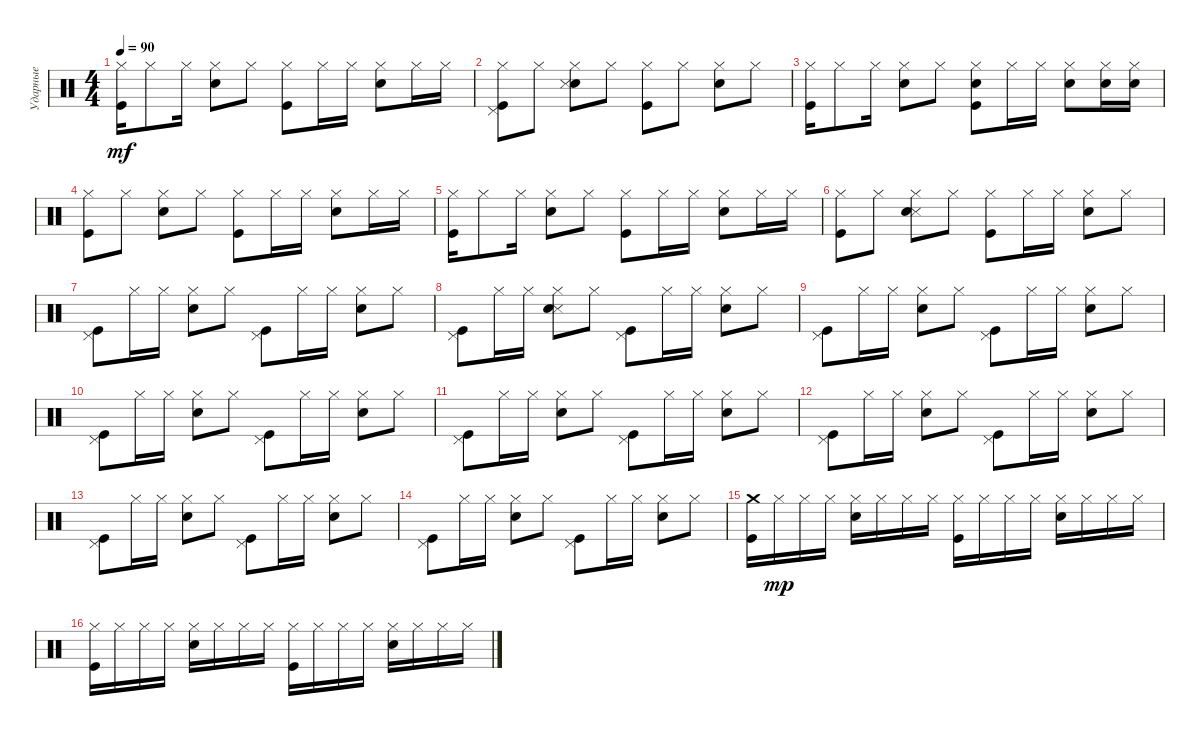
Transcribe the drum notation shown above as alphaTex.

\track ("Ударные" "Ударные") {instrument percussion}
\staff {score}
\articulation defaults
\ts (4 4)
\tempo 90
\clef neutral
\ks c
("Hi-Hat (closed)" "Kick (hit)").16{dy mf} "Hi-Hat (closed)".8 "Hi-Hat (closed)".16 ("Hi-Hat (closed)" "Snare (hit) 2").8 "Hi-Hat (closed)".8 ("Hi-Hat (closed)" "Kick (hit)").8 "Hi-Hat (closed)".16 "Hi-Hat (closed)".16 ("Hi-Hat (closed)" "Snare (hit) 2").8 "Hi-Hat (closed)".16 "Hi-Hat (closed)".16 |
("Hi-Hat (closed)" "Pedal Hi-Hat (hit)" "Kick (hit)").8 "Hi-Hat (closed)".8 ("Hi-Hat (closed)" "Snare (hit) 2" "Snare (side stick) 3").8 "Hi-Hat (closed)".8 ("Hi-Hat (closed)" "Kick (hit)").8 "Hi-Hat (closed)".8 ("Hi-Hat (closed)" "Snare (hit) 2").8 "Hi-Hat (closed)".8 |
("Hi-Hat (closed)" "Kick (hit)").16 "Hi-Hat (closed)".8 "Hi-Hat (closed)".16 ("Hi-Hat (closed)" "Snare (hit) 2").8 "Hi-Hat (closed)".8 ("Hi-Hat (closed)" "Kick (hit)" "Snare (hit) 2").8 "Hi-Hat (closed)".16 "Hi-Hat (closed)".16 ("Hi-Hat (closed)" "Snare (hit) 2").8 ("Hi-Hat (closed)" "Snare (hit) 2").16 ("Hi-Hat (closed)" "Snare (hit) 2").16 |
("Hi-Hat (closed)" "Kick (hit)").8 "Hi-Hat (closed)".8 ("Hi-Hat (closed)" "Snare (hit) 2").8 "Hi-Hat (closed)".8 ("Hi-Hat (closed)" "Kick (hit)").8 "Hi-Hat (closed)".16 "Hi-Hat (closed)".16 ("Hi-Hat (closed)" "Snare (hit) 2").8 "Hi-Hat (closed)".16 "Hi-Hat (closed)".16 |
("Hi-Hat (closed)" "Kick (hit)").16 "Hi-Hat (closed)".8 "Hi-Hat (closed)".16 ("Hi-Hat (closed)" "Snare (hit) 2").8 "Hi-Hat (closed)".8 ("Hi-Hat (closed)" "Kick (hit)").8 "Hi-Hat (closed)".16 "Hi-Hat (closed)".16 ("Hi-Hat (closed)" "Snare (hit) 2").8 "Hi-Hat (closed)".16 "Hi-Hat (closed)".16 |
("Hi-Hat (closed)" "Kick (hit)").8 "Hi-Hat (closed)".8 ("Hi-Hat (closed)" "Snare (side stick) 3" "Snare (hit) 2").8 "Hi-Hat (closed)".8 ("Hi-Hat (closed)" "Kick (hit)").8 "Hi-Hat (closed)".16 "Hi-Hat (closed)".16 ("Hi-Hat (closed)" "Snare (hit) 2").8 "Hi-Hat (closed)".8 |
("Pedal Hi-Hat (hit)" "Kick (hit)").8 "Hi-Hat (closed)".16 "Hi-Hat (closed)".16 ("Hi-Hat (closed)" "Snare (hit) 2").8 "Hi-Hat (closed)".8 ("Pedal Hi-Hat (hit)" "Kick (hit)").8 "Hi-Hat (closed)".16 "Hi-Hat (closed)".16 ("Hi-Hat (closed)" "Snare (hit) 2").8 "Hi-Hat (closed)".8 |
("Pedal Hi-Hat (hit)" "Kick (hit)").8 "Hi-Hat (closed)".16 "Hi-Hat (closed)".16 ("Hi-Hat (closed)" "Snare (side stick) 3" "Snare (hit) 2").8 "Hi-Hat (closed)".8 ("Pedal Hi-Hat (hit)" "Kick (hit)").8 "Hi-Hat (closed)".16 "Hi-Hat (closed)".16 ("Hi-Hat (closed)" "Snare (hit) 2").8 "Hi-Hat (closed)".8 |
("Pedal Hi-Hat (hit)" "Kick (hit)").8 "Hi-Hat (closed)".16 "Hi-Hat (closed)".16 ("Hi-Hat (closed)" "Snare (hit) 2").8 "Hi-Hat (closed)".8 ("Pedal Hi-Hat (hit)" "Kick (hit)").8 "Hi-Hat (closed)".16 "Hi-Hat (closed)".16 ("Hi-Hat (closed)" "Snare (hit) 2").8 "Hi-Hat (closed)".8 |
("Pedal Hi-Hat (hit)" "Kick (hit)").8 "Hi-Hat (closed)".16 "Hi-Hat (closed)".16 ("Hi-Hat (closed)" "Snare (hit) 2").8 "Hi-Hat (closed)".8 ("Pedal Hi-Hat (hit)" "Kick (hit)").8 "Hi-Hat (closed)".16 "Hi-Hat (closed)".16 ("Hi-Hat (closed)" "Snare (hit) 2").8 "Hi-Hat (closed)".8 |
("Pedal Hi-Hat (hit)" "Kick (hit)").8 "Hi-Hat (closed)".16 "Hi-Hat (closed)".16 ("Hi-Hat (closed)" "Snare (hit) 2").8 "Hi-Hat (closed)".8 ("Pedal Hi-Hat (hit)" "Kick (hit)").8 "Hi-Hat (closed)".16 "Hi-Hat (closed)".16 ("Hi-Hat (closed)" "Snare (hit) 2").8 "Hi-Hat (closed)".8 |
("Pedal Hi-Hat (hit)" "Kick (hit)").8 "Hi-Hat (closed)".16 "Hi-Hat (closed)".16 ("Hi-Hat (closed)" "Snare (hit) 2").8 "Hi-Hat (closed)".8 ("Pedal Hi-Hat (hit)" "Kick (hit)").8 "Hi-Hat (closed)".16 "Hi-Hat (closed)".16 ("Hi-Hat (closed)" "Snare (hit) 2").8 "Hi-Hat (closed)".8 |
("Pedal Hi-Hat (hit)" "Kick (hit)").8 "Hi-Hat (closed)".16 "Hi-Hat (closed)".16 ("Hi-Hat (closed)" "Snare (hit) 2").8 "Hi-Hat (closed)".8 ("Pedal Hi-Hat (hit)" "Kick (hit)").8 "Hi-Hat (closed)".16 "Hi-Hat (closed)".16 ("Hi-Hat (closed)" "Snare (hit) 2").8 "Hi-Hat (closed)".8 |
("Pedal Hi-Hat (hit)" "Kick (hit)").8 "Hi-Hat (closed)".16 "Hi-Hat (closed)".16 ("Hi-Hat (closed)" "Snare (hit) 2").8 "Hi-Hat (closed)".8 ("Pedal Hi-Hat (hit)" "Kick (hit)").8 "Hi-Hat (closed)".16 "Hi-Hat (closed)".16 ("Hi-Hat (closed)" "Snare (hit) 2").8 "Hi-Hat (closed)".8 |
("Crash medium (hit)" "Kick (hit)").16 "Hi-Hat (closed)".16{dy mp} "Hi-Hat (closed)".16 "Hi-Hat (closed)".16 ("Hi-Hat (closed)" "Snare (hit) 2").16 "Hi-Hat (closed)".16 "Hi-Hat (closed)".16 "Hi-Hat (closed)".16 ("Hi-Hat (closed)" "Kick (hit)").16 "Hi-Hat (closed)".16 "Hi-Hat (closed)".16 "Hi-Hat (closed)".16 ("Hi-Hat (closed)" "Snare (hit) 2").16 "Hi-Hat (closed)".16 "Hi-Hat (closed)".16 "Hi-Hat (closed)".16 |
("Hi-Hat (closed)" "Kick (hit)").16 "Hi-Hat (closed)".16 "Hi-Hat (closed)".16 "Hi-Hat (closed)".16 ("Hi-Hat (closed)" "Snare (hit) 2").16 "Hi-Hat (closed)".16 "Hi-Hat (closed)".16 "Hi-Hat (closed)".16 ("Hi-Hat (closed)" "Kick (hit)").16 "Hi-Hat (closed)".16 "Hi-Hat (closed)".16 "Hi-Hat (closed)".16 ("Hi-Hat (closed)" "Snare (hit) 2").16 "Hi-Hat (closed)".16 "Hi-Hat (closed)".16 "Hi-Hat (closed)".16
